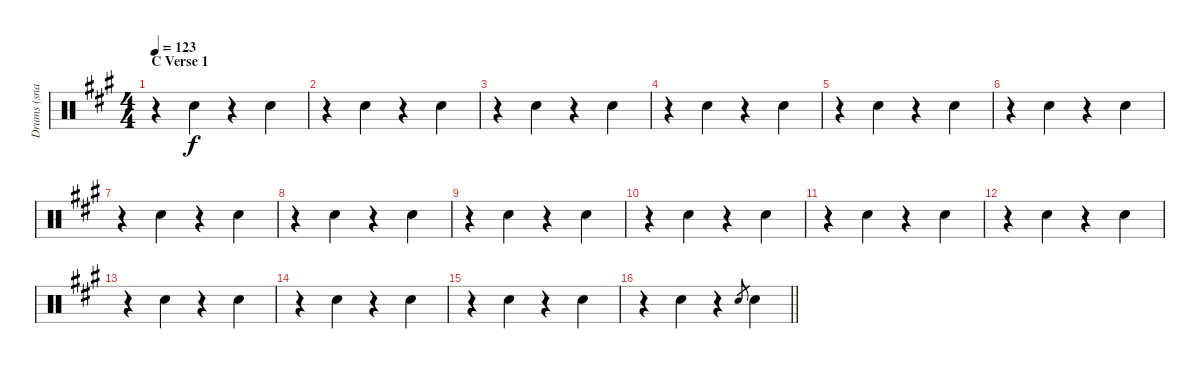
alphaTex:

\track ("Drums (snare)" "Drums (sna") {instrument percussion}
\staff {score}
\articulation defaults
\ts (4 4)
\section ("" "C Verse 1")
\tempo 123
\clef neutral
\ks a
r.4{dy f} "Snare (hit) 2".4 r.4 "Snare (hit) 2".4 |
r.4 "Snare (hit) 2".4 r.4 "Snare (hit) 2".4 |
r.4 "Snare (hit) 2".4 r.4 "Snare (hit) 2".4 |
r.4 "Snare (hit) 2".4 r.4 "Snare (hit) 2".4 |
r.4 "Snare (hit) 2".4 r.4 "Snare (hit) 2".4 |
r.4 "Snare (hit) 2".4 r.4 "Snare (hit) 2".4 |
r.4 "Snare (hit) 2".4 r.4 "Snare (hit) 2".4 |
r.4 "Snare (hit) 2".4 r.4 "Snare (hit) 2".4 |
r.4 "Snare (hit) 2".4 r.4 "Snare (hit) 2".4 |
r.4 "Snare (hit) 2".4 r.4 "Snare (hit) 2".4 |
r.4 "Snare (hit) 2".4 r.4 "Snare (hit) 2".4 |
r.4 "Snare (hit) 2".4 r.4 "Snare (hit) 2".4 |
r.4 "Snare (hit) 2".4 r.4 "Snare (hit) 2".4 |
r.4 "Snare (hit) 2".4 r.4 "Snare (hit) 2".4 |
r.4 "Snare (hit) 2".4 r.4 "Snare (hit) 2".4 |
\barLineRight lightlight
r.4 "Snare (hit) 2".4 r.4 "Snare (hit) 2".8{gr} "Snare (hit) 2".4
